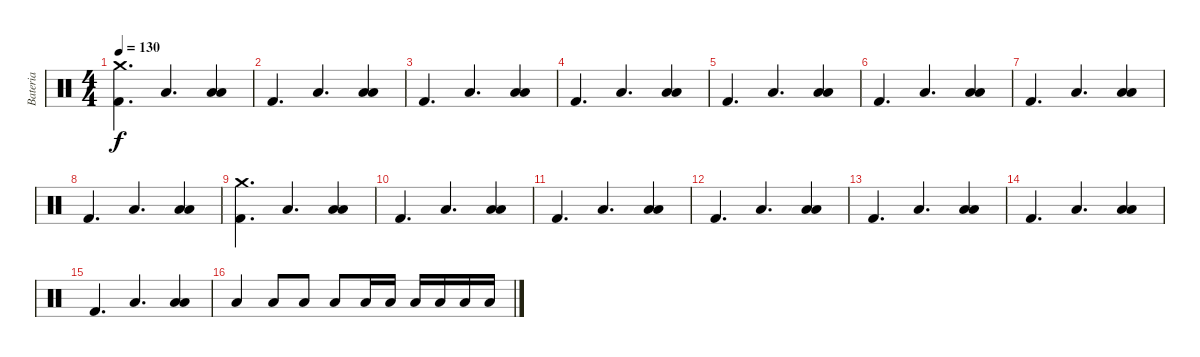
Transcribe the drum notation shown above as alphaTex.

\track ("Bateria" "Bateria") {instrument percussion}
\staff {score}
\articulation defaults
\ts (4 4)
\tempo 130
\clef neutral
\ks c
("Crash medium (hit)" "Kick (hit) 2").4{d dy f} "Low Tom (hit)".4{d} ("Low Tom (hit)" "Low Tom (hit)").4 |
"Kick (hit) 2".4{d} "Low Tom (hit)".4{d} ("Low Tom (hit)" "Low Tom (hit)").4 |
"Kick (hit) 2".4{d} "Low Tom (hit)".4{d} ("Low Tom (hit)" "Low Tom (hit)").4 |
"Kick (hit) 2".4{d} "Low Tom (hit)".4{d} ("Low Tom (hit)" "Low Tom (hit)").4 |
"Kick (hit) 2".4{d} "Low Tom (hit)".4{d} ("Low Tom (hit)" "Low Tom (hit)").4 |
"Kick (hit) 2".4{d} "Low Tom (hit)".4{d} ("Low Tom (hit)" "Low Tom (hit)").4 |
"Kick (hit) 2".4{d} "Low Tom (hit)".4{d} ("Low Tom (hit)" "Low Tom (hit)").4 |
"Kick (hit) 2".4{d} "Low Tom (hit)".4{d} ("Low Tom (hit)" "Low Tom (hit)").4 |
("Crash medium (hit)" "Kick (hit) 2").4{d} "Low Tom (hit)".4{d} ("Low Tom (hit)" "Low Tom (hit)").4 |
"Kick (hit) 2".4{d} "Low Tom (hit)".4{d} ("Low Tom (hit)" "Low Tom (hit)").4 |
"Kick (hit) 2".4{d} "Low Tom (hit)".4{d} ("Low Tom (hit)" "Low Tom (hit)").4 |
"Kick (hit) 2".4{d} "Low Tom (hit)".4{d} ("Low Tom (hit)" "Low Tom (hit)").4 |
"Kick (hit) 2".4{d} "Low Tom (hit)".4{d} ("Low Tom (hit)" "Low Tom (hit)").4 |
"Kick (hit) 2".4{d} "Low Tom (hit)".4{d} ("Low Tom (hit)" "Low Tom (hit)").4 |
"Kick (hit) 2".4{d} "Low Tom (hit)".4{d} ("Low Tom (hit)" "Low Tom (hit)").4 |
"Low Tom (hit)".4 "Low Tom (hit)".8 "Low Tom (hit)".8 "Low Tom (hit)".8 "Low Tom (hit)".16 "Low Tom (hit)".16 "Low Tom (hit)".16 "Low Tom (hit)".16 "Low Tom (hit)".16 "Low Tom (hit)".16
